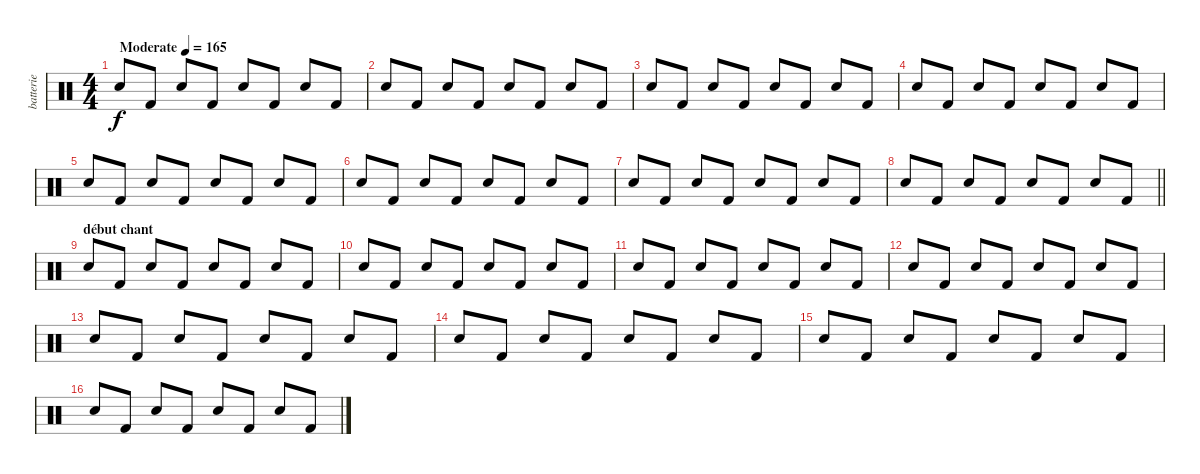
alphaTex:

\track ("batterie" "batterie") {instrument percussion}
\staff {score}
\articulation defaults
\ts (4 4)
\tempo (165 "Moderate")
\clef neutral
\ks c "Snare (hit) 2".8{dy f} "Kick (hit) 2".8 "Snare (hit) 2".8 "Kick (hit) 2".8 "Snare (hit) 2".8 "Kick (hit) 2".8 "Snare (hit) 2".8 "Kick (hit) 2".8
|
"Snare (hit) 2".8 "Kick (hit) 2".8 "Snare (hit) 2".8 "Kick (hit) 2".8 "Snare (hit) 2".8 "Kick (hit) 2".8 "Snare (hit) 2".8 "Kick (hit) 2".8 |
"Snare (hit) 2".8 "Kick (hit) 2".8 "Snare (hit) 2".8 "Kick (hit) 2".8 "Snare (hit) 2".8 "Kick (hit) 2".8 "Snare (hit) 2".8 "Kick (hit) 2".8 |
"Snare (hit) 2".8 "Kick (hit) 2".8 "Snare (hit) 2".8 "Kick (hit) 2".8 "Snare (hit) 2".8 "Kick (hit) 2".8 "Snare (hit) 2".8 "Kick (hit) 2".8 |
"Snare (hit) 2".8 "Kick (hit) 2".8 "Snare (hit) 2".8 "Kick (hit) 2".8 "Snare (hit) 2".8 "Kick (hit) 2".8 "Snare (hit) 2".8 "Kick (hit) 2".8 |
"Snare (hit) 2".8 "Kick (hit) 2".8 "Snare (hit) 2".8 "Kick (hit) 2".8 "Snare (hit) 2".8 "Kick (hit) 2".8 "Snare (hit) 2".8 "Kick (hit) 2".8 |
"Snare (hit) 2".8 "Kick (hit) 2".8 "Snare (hit) 2".8 "Kick (hit) 2".8 "Snare (hit) 2".8 "Kick (hit) 2".8 "Snare (hit) 2".8 "Kick (hit) 2".8 |
\barLineRight lightlight "Snare (hit) 2".8 "Kick (hit) 2".8 "Snare (hit) 2".8 "Kick (hit) 2".8 "Snare (hit) 2".8 "Kick (hit) 2".8 "Snare (hit) 2".8 "Kick (hit) 2".8
|
\section ("" "début chant")
"Snare (hit) 2".8 "Kick (hit) 2".8 "Snare (hit) 2".8 "Kick (hit) 2".8 "Snare (hit) 2".8 "Kick (hit) 2".8 "Snare (hit) 2".8 "Kick (hit) 2".8 |
"Snare (hit) 2".8 "Kick (hit) 2".8 "Snare (hit) 2".8 "Kick (hit) 2".8 "Snare (hit) 2".8 "Kick (hit) 2".8 "Snare (hit) 2".8 "Kick (hit) 2".8 |
"Snare (hit) 2".8 "Kick (hit) 2".8 "Snare (hit) 2".8 "Kick (hit) 2".8 "Snare (hit) 2".8 "Kick (hit) 2".8 "Snare (hit) 2".8 "Kick (hit) 2".8 |
"Snare (hit) 2".8 "Kick (hit) 2".8 "Snare (hit) 2".8 "Kick (hit) 2".8 "Snare (hit) 2".8 "Kick (hit) 2".8 "Snare (hit) 2".8 "Kick (hit) 2".8 |
"Snare (hit) 2".8 "Kick (hit) 2".8 "Snare (hit) 2".8 "Kick (hit) 2".8 "Snare (hit) 2".8 "Kick (hit) 2".8 "Snare (hit) 2".8 "Kick (hit) 2".8 |
"Snare (hit) 2".8 "Kick (hit) 2".8 "Snare (hit) 2".8 "Kick (hit) 2".8 "Snare (hit) 2".8 "Kick (hit) 2".8 "Snare (hit) 2".8 "Kick (hit) 2".8 |
"Snare (hit) 2".8 "Kick (hit) 2".8 "Snare (hit) 2".8 "Kick (hit) 2".8 "Snare (hit) 2".8 "Kick (hit) 2".8 "Snare (hit) 2".8 "Kick (hit) 2".8 |
"Snare (hit) 2".8 "Kick (hit) 2".8 "Snare (hit) 2".8 "Kick (hit) 2".8 "Snare (hit) 2".8 "Kick (hit) 2".8 "Snare (hit) 2".8 "Kick (hit) 2".8
